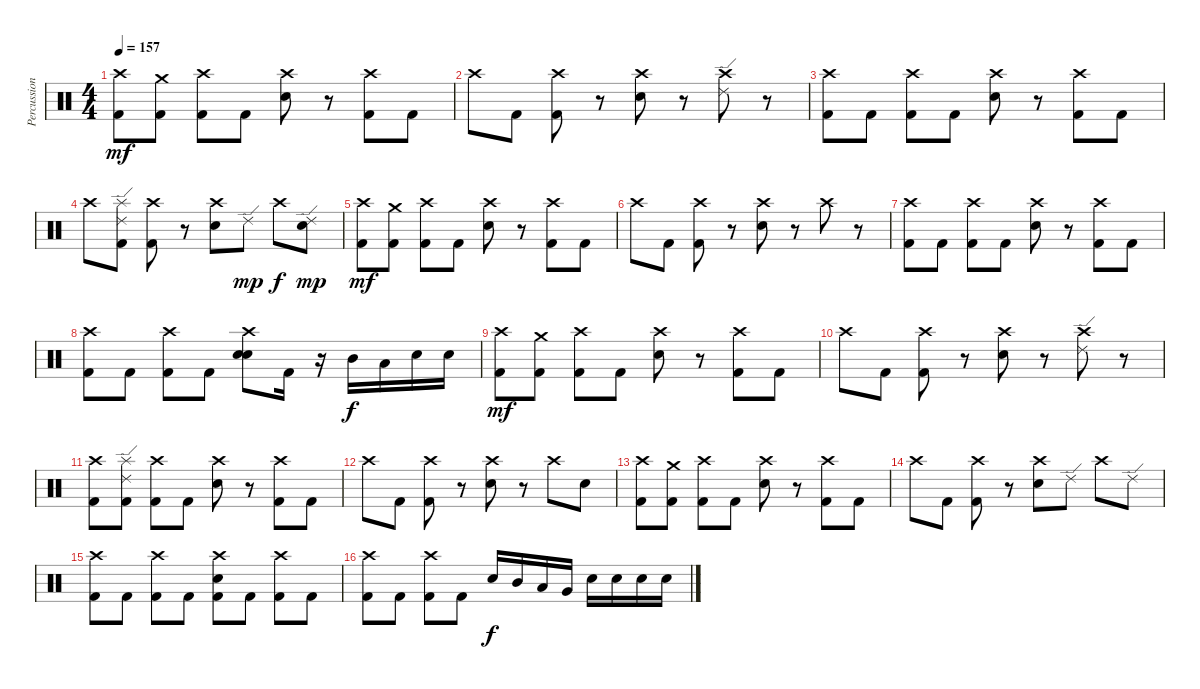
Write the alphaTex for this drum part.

\track ("Percussions" "Percussion") {instrument percussion}
\staff {score}
\articulation defaults
\ts (4 4)
\tempo 157
\clef neutral
\ks c
("Crash high (hit)" "Kick (hit) 2").8{dy mf} ("Crash medium (hit)" "Kick (hit) 2").8 ("Crash high (hit)" "Kick (hit) 2").8 "Kick (hit) 2".8 ("Crash high (hit)" "Electric Snare (hit)").8 r.8 ("Crash high (hit)" "Kick (hit) 2").8 "Kick (hit) 2".8 |
"Crash high (hit)".8 "Kick (hit) 2".8 ("Crash high (hit)" "Kick (hit) 2").8 r.8 ("Crash high (hit)" "Electric Snare (hit)").8 r.8 ("Ride (edge) 2" "Crash high (hit)").8 r.8 |
("Crash high (hit)" "Kick (hit) 2").8 "Kick (hit) 2".8 ("Crash high (hit)" "Kick (hit) 2").8 "Kick (hit) 2".8 ("Crash high (hit)" "Electric Snare (hit)").8 r.8 ("Crash high (hit)" "Kick (hit) 2").8 "Kick (hit) 2".8 |
"Crash high (hit)".8 ("Ride (edge) 2" "Splash (hit)" "Kick (hit) 2").8 ("Crash high (hit)" "Kick (hit) 2").8 r.8 ("Crash high (hit)" "Electric Snare (hit)").8 "Ride (edge) 2".8{dy mp} "Crash high (hit)".8{dy f} ("Ride (edge) 2" "Electric Snare (hit)").8{dy mp} |
("Crash high (hit)" "Kick (hit) 2").8{dy mf} ("Crash medium (hit)" "Kick (hit) 2").8 ("Crash high (hit)" "Kick (hit) 2").8 "Kick (hit) 2".8 ("Crash high (hit)" "Electric Snare (hit)").8 r.8 ("Crash high (hit)" "Kick (hit) 2").8 "Kick (hit) 2".8 |
"Crash high (hit)".8 "Kick (hit) 2".8 ("Crash high (hit)" "Kick (hit) 2").8 r.8 ("Crash high (hit)" "Electric Snare (hit)").8 r.8 "Crash high (hit)".8 r.8 |
("Crash high (hit)" "Kick (hit) 2").8 "Kick (hit) 2".8 ("Crash high (hit)" "Kick (hit) 2").8 "Kick (hit) 2".8 ("Crash high (hit)" "Electric Snare (hit)").8 r.8 ("Crash high (hit)" "Kick (hit) 2").8 "Kick (hit) 2".8 |
("Crash high (hit)" "Kick (hit) 2").8 "Kick (hit) 2".8 ("Crash high (hit)" "Kick (hit) 2").8 "Kick (hit) 2".8 ("Crash high (hit)" "Snare (hit) 2" "Electric Snare (hit)").8 "Kick (hit) 2".16 r.16 "Mid Tom (hit)".16{dy f} "Low Tom (hit)".16 "Electric Snare (hit)".16 "Electric Snare (hit)".16 |
("Crash high (hit)" "Kick (hit) 2").8{dy mf} ("Crash medium (hit)" "Kick (hit) 2").8 ("Crash high (hit)" "Kick (hit) 2").8 "Kick (hit) 2".8 ("Crash high (hit)" "Electric Snare (hit)").8 r.8 ("Crash high (hit)" "Kick (hit) 2").8 "Kick (hit) 2".8 |
"Crash high (hit)".8 "Kick (hit) 2".8 ("Crash high (hit)" "Kick (hit) 2").8 r.8 ("Crash high (hit)" "Electric Snare (hit)").8 r.8 ("Ride (edge) 2" "Crash high (hit)").8 r.8 |
("Crash high (hit)" "Kick (hit) 2").8 ("Ride (edge) 2" "Splash (hit)" "Kick (hit) 2").8 ("Crash high (hit)" "Kick (hit) 2").8 "Kick (hit) 2".8 ("Crash high (hit)" "Electric Snare (hit)").8 r.8 ("Crash high (hit)" "Kick (hit) 2").8 "Kick (hit) 2".8 |
"Crash high (hit)".8 "Kick (hit) 2".8 ("Crash high (hit)" "Kick (hit) 2").8 r.8 ("Crash high (hit)" "Electric Snare (hit)").8 r.8 "Crash high (hit)".8 "Electric Snare (hit)".8 |
("Crash high (hit)" "Kick (hit) 2").8 ("Crash medium (hit)" "Kick (hit) 2").8 ("Crash high (hit)" "Kick (hit) 2").8 "Kick (hit) 2".8 ("Crash high (hit)" "Electric Snare (hit)").8 r.8 ("Crash high (hit)" "Kick (hit) 2").8 "Kick (hit) 2".8 |
"Crash high (hit)".8 "Kick (hit) 2".8 ("Crash high (hit)" "Kick (hit) 2").8 r.8 ("Crash high (hit)" "Electric Snare (hit)").8 "Ride (edge) 2".8 "Crash high (hit)".8 "Ride (edge) 2".8 |
("Crash high (hit)" "Kick (hit) 2").8 "Kick (hit) 2".8 ("Crash high (hit)" "Kick (hit) 2").8 "Kick (hit) 2".8 ("Crash high (hit)" "Electric Snare (hit)" "Kick (hit) 2").8 "Kick (hit) 2".8 ("Crash high (hit)" "Kick (hit) 2").8 "Kick (hit) 2".8 |
("Crash high (hit)" "Kick (hit) 2").8 "Kick (hit) 2".8 ("Crash high (hit)" "Kick (hit) 2").8 "Kick (hit) 2".8 "Electric Snare (hit)".16{dy f} "Mid Tom (hit)".16 "Low Tom (hit)".16 "Very Low Tom (hit)".16 "Electric Snare (hit)".16 "Electric Snare (hit)".16 "Electric Snare (hit)".16 "Electric Snare (hit)".16
